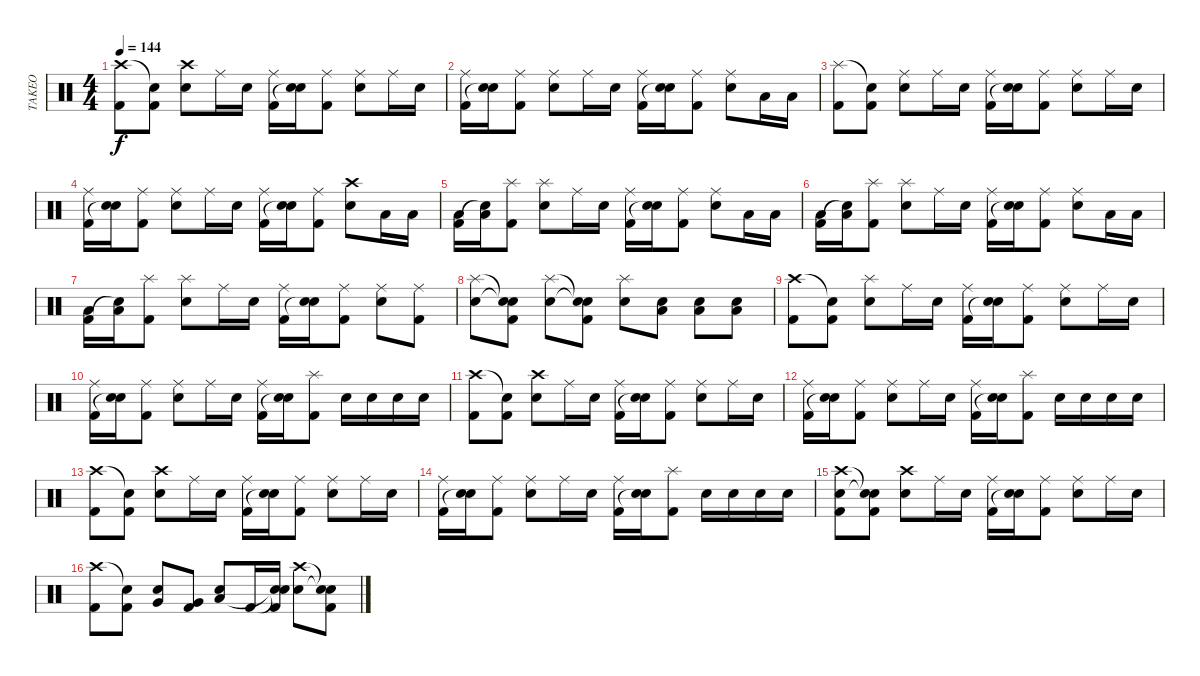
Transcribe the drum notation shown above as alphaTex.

\track ("TAKEO" "TAKEO") {instrument percussion}
\staff {score}
\articulation defaults
\ts (4 4)
\tempo 144
\clef neutral
\ks c
("Crash high (hit)" "Kick (hit) 2").8{dy f} ("Snare (hit)"{t} "Kick (hit) 2").8 ("Crash high (hit)" "Electric Snare (hit)").8 "Ride (middle)".16 "Electric Snare (hit)".16 ("Ride (middle)" "Kick (hit) 2").16 ("Electric Snare (hit)" "Snare (hit)"{t}).16 ("Ride (middle)" "Kick (hit) 2").8 ("Ride (middle)" "Electric Snare (hit)").8 "Ride (middle)".16 "Electric Snare (hit)".16 |
("Ride (middle)" "Kick (hit) 2").16 ("Electric Snare (hit)" "Snare (hit)"{t}).16 ("Ride (middle)" "Kick (hit) 2").8 ("Ride (middle)" "Electric Snare (hit)").8 "Ride (middle)".16 "Electric Snare (hit)".16 ("Ride (middle)" "Kick (hit) 2").16 ("Electric Snare (hit)" "Snare (hit)"{t}).16 ("Ride (middle)" "Kick (hit) 2").8 ("Ride (middle)" "Electric Snare (hit)").8 "Low Floor Tom (hit)".16 "Low Floor Tom (hit)".16 |
("Splash (hit)" "Kick (hit) 2").8 ("Snare (hit)"{t} "Kick (hit) 2").8 ("Ride (middle)" "Electric Snare (hit)").8 "Ride (middle)".16 "Electric Snare (hit)".16 ("Ride (middle)" "Kick (hit) 2").16 ("Electric Snare (hit)" "Snare (hit)"{t}).16 ("Ride (middle)" "Kick (hit) 2").8 ("Ride (middle)" "Electric Snare (hit)").8 "Ride (middle)".16 "Electric Snare (hit)".16 |
("Ride (middle)" "Kick (hit) 2").16 ("Electric Snare (hit)" "Snare (hit)"{t}).16 ("Ride (middle)" "Kick (hit) 2").8 ("Ride (middle)" "Electric Snare (hit)").8 "Ride (middle)".16 "Electric Snare (hit)".16 ("Ride (middle)" "Kick (hit) 2").16 ("Electric Snare (hit)" "Snare (hit)"{t}).16 ("Ride (middle)" "Kick (hit) 2").8 ("Electric Snare (hit)" "Crash high (hit)").8 "Low Floor Tom (hit)".16 "Low Floor Tom (hit)".16 |
("Low Floor Tom (hit)" "Kick (hit) 2").16 ("Low Floor Tom (hit)" "Snare (hit)"{t}).16 ("Splash (hit)" "Kick (hit) 2").8 ("Splash (hit)" "Electric Snare (hit)").8 "Ride (middle)".16 "Electric Snare (hit)".16 ("Ride (middle)" "Kick (hit) 2").16 ("Electric Snare (hit)" "Snare (hit)"{t}).16 ("Ride (middle)" "Kick (hit) 2").8 ("Ride (middle)" "Electric Snare (hit)").8 "Low Floor Tom (hit)".16 "Low Floor Tom (hit)".16 |
("Low Floor Tom (hit)" "Kick (hit) 2").16 ("Low Floor Tom (hit)" "Snare (hit)"{t}).16 ("Splash (hit)" "Kick (hit) 2").8 ("Splash (hit)" "Electric Snare (hit)").8 "Ride (middle)".16 "Electric Snare (hit)".16 ("Ride (middle)" "Kick (hit) 2").16 ("Electric Snare (hit)" "Snare (hit)"{t}).16 ("Ride (middle)" "Kick (hit) 2").8 ("Ride (middle)" "Electric Snare (hit)").8 "Low Floor Tom (hit)".16 "Low Floor Tom (hit)".16 |
("Low Floor Tom (hit)" "Kick (hit) 2").16 ("Low Floor Tom (hit)" "Snare (hit)"{t}).16 ("Splash (hit)" "Kick (hit) 2").8 ("Splash (hit)" "Electric Snare (hit)").8 "Ride (middle)".16 "Electric Snare (hit)".16 ("Ride (middle)" "Kick (hit) 2").16 ("Electric Snare (hit)" "Snare (hit)"{t}).16 ("Ride (middle)" "Kick (hit) 2").8 ("Ride (middle)" "Electric Snare (hit)").8 ("Ride (middle)" "Kick (hit) 2").8 |
("Splash (hit)" "Electric Snare (hit)").8 ("Snare (hit)"{t} "Snare (hit)"{t} "Kick (hit) 2").8 ("Splash (hit)" "Electric Snare (hit)").8 ("Snare (hit)"{t} "Snare (hit)"{t} "Kick (hit) 2").8 ("Splash (hit)" "Electric Snare (hit)").8 ("Electric Snare (hit)" "Low Floor Tom (hit)").8 ("Electric Snare (hit)" "Low Floor Tom (hit)").8 ("Low Floor Tom (hit)" "Electric Snare (hit)").8 |
("Crash high (hit)" "Kick (hit) 2").8 ("Snare (hit)"{t} "Kick (hit) 2").8 ("Splash (hit)" "Electric Snare (hit)").8 "Ride (middle)".16 "Electric Snare (hit)".16 ("Ride (middle)" "Kick (hit) 2").16 ("Electric Snare (hit)" "Snare (hit)"{t}).16 ("Ride (middle)" "Kick (hit) 2").8 ("Ride (middle)" "Electric Snare (hit)").8 "Ride (middle)".16 "Electric Snare (hit)".16 |
("Ride (middle)" "Kick (hit) 2").16 ("Electric Snare (hit)" "Snare (hit)"{t}).16 ("Ride (middle)" "Kick (hit) 2").8 ("Ride (middle)" "Electric Snare (hit)").8 "Ride (middle)".16 "Electric Snare (hit)".16 ("Ride (middle)" "Kick (hit) 2").16 ("Electric Snare (hit)" "Snare (hit)"{t}).16 ("Splash (hit)" "Kick (hit) 2").8 "Electric Snare (hit)".16 "Electric Snare (hit)".16 "Electric Snare (hit)".16 "Electric Snare (hit)".16 |
("Crash high (hit)" "Kick (hit) 2").8 ("Snare (hit)"{t} "Kick (hit) 2").8 ("Crash high (hit)" "Electric Snare (hit)").8 "Ride (middle)".16 "Electric Snare (hit)".16 ("Ride (middle)" "Kick (hit) 2").16 ("Electric Snare (hit)" "Snare (hit)"{t}).16 ("Ride (middle)" "Kick (hit) 2").8 ("Ride (middle)" "Electric Snare (hit)").8 "Ride (middle)".16 "Electric Snare (hit)".16 |
("Ride (middle)" "Kick (hit) 2").16 ("Electric Snare (hit)" "Snare (hit)"{t}).16 ("Ride (middle)" "Kick (hit) 2").8 ("Ride (middle)" "Electric Snare (hit)").8 "Ride (middle)".16 "Electric Snare (hit)".16 ("Ride (middle)" "Kick (hit) 2").16 ("Electric Snare (hit)" "Snare (hit)"{t}).16 ("Splash (hit)" "Kick (hit) 2").8 "Electric Snare (hit)".16 "Electric Snare (hit)".16 "Electric Snare (hit)".16 "Electric Snare (hit)".16 |
("Crash high (hit)" "Kick (hit) 2").8 ("Snare (hit)"{t} "Kick (hit) 2").8 ("Crash high (hit)" "Electric Snare (hit)").8 "Ride (middle)".16 "Electric Snare (hit)".16 ("Ride (middle)" "Kick (hit) 2").16 ("Electric Snare (hit)" "Snare (hit)"{t}).16 ("Ride (middle)" "Kick (hit) 2").8 ("Ride (middle)" "Electric Snare (hit)").8 "Ride (middle)".16 "Electric Snare (hit)".16 |
("Ride (middle)" "Kick (hit) 2").16 ("Electric Snare (hit)" "Snare (hit)"{t}).16 ("Ride (middle)" "Kick (hit) 2").8 ("Ride (middle)" "Electric Snare (hit)").8 "Ride (middle)".16 "Electric Snare (hit)".16 ("Ride (middle)" "Kick (hit) 2").16 ("Electric Snare (hit)" "Snare (hit)"{t}).16 ("Splash (hit)" "Kick (hit) 2").8 "Electric Snare (hit)".16 "Electric Snare (hit)".16 "Electric Snare (hit)".16 "Electric Snare (hit)".16 |
("Crash high (hit)" "Electric Snare (hit)" "Kick (hit) 2").8 ("Snare (hit)"{t} "Snare (hit)"{t} "Kick (hit) 2").8 ("Crash high (hit)" "Electric Snare (hit)").8 "Ride (middle)".16 "Electric Snare (hit)".16 ("Ride (middle)" "Kick (hit) 2").16 ("Electric Snare (hit)" "Snare (hit)"{t}).16 ("Ride (middle)" "Kick (hit) 2").8 ("Ride (middle)" "Electric Snare (hit)").8 "Ride (middle)".16 "Electric Snare (hit)".16 |
("Crash high (hit)" "Kick (hit) 2").8 ("Snare (hit)"{t} "Kick (hit) 2").8 ("Electric Snare (hit)" "Very Low Tom (hit)").8 ("Kick (hit) 2" "Very Low Tom (hit)").8 ("Electric Snare (hit)" "Low Floor Tom (hit)").8 "Kick (hit) 2".16 ("Snare (hit)"{t} "Snare (hit)"{t} "Kick (hit) 2").16 ("Crash high (hit)" "Electric Snare (hit)").8 ("Snare (hit)"{t} "Snare (hit)"{t} "Kick (hit) 2").8
